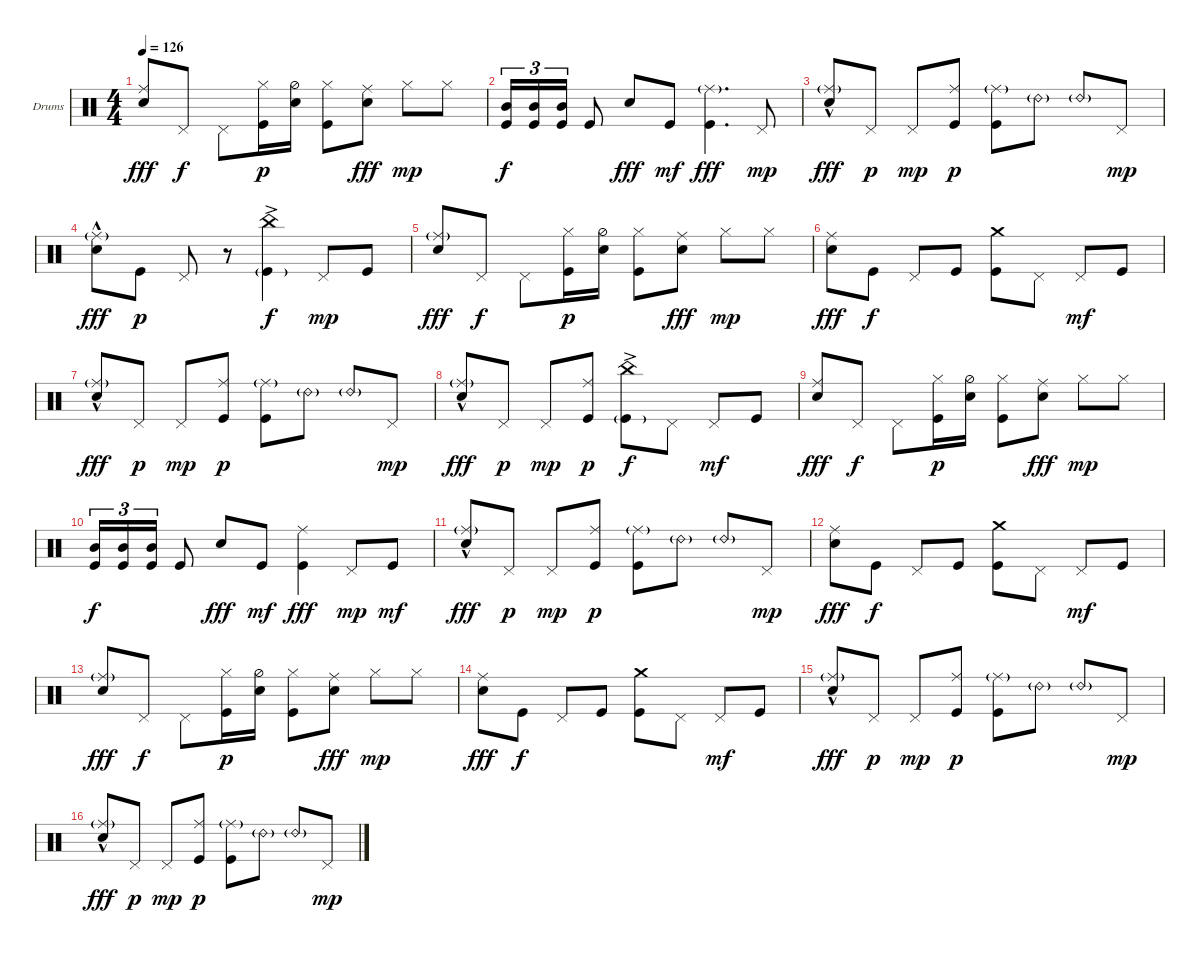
\bracketExtendMode groupsimilarinstruments
\firstSystemTrackNameOrientation horizontal
\otherSystemsTrackNameOrientation horizontal
\track ("drums - john hinch" "Drums") {instrument percussion}
\staff {score}
\articulation defaults
\ts (4 4)
\tempo 126
\clef neutral
\scale
0.333333
\ks c
("Snare (hit) 2" "Ride (middle)").8{dy fff} "Pedal Hi-Hat (hit)".8{dy f} "Pedal Hi-Hat (hit)".8 ("Kick (hit)" "Hi-Hat (closed)").16{dy p} ("Snare (hit) 2" "Hi-Hat (half)").16 ("Kick (hit)" "Hi-Hat (closed)").8 ("Snare (hit) 2" "Ride (middle)").8{dy fff} "Hi-Hat (closed)".8{dy mp} "Hi-Hat (closed)".8 |
\scale
0.333333 ("Kick (hit)" "Mid Tom (hit)").16{tu (3 2) dy f} ("Kick (hit)" "Mid Tom (hit)").16{tu (3 2)} ("Kick (hit)" "Mid Tom (hit)").16{tu (3 2)} "Kick (hit)".8 "Snare (hit) 2".8{dy fff} "Kick (hit)".8{dy mf} ("Kick (hit)" "Ride (middle)"{g}).4{d dy fff} "Pedal Hi-Hat (hit)".8{dy mp} |
\scale
0.333333 ("Snare (hit) 2"{hac} "Ride (middle)"{g}).8{dy fff} "Pedal Hi-Hat (hit)".8{dy p} "Pedal Hi-Hat (hit)".8{dy mp} ("Kick (hit)" "Ride (middle)").8{dy p} ("Kick (hit)" "Ride (middle)"{g}).8 "Ride (bell) 2"{g}.8 "Ride (bell) 2"{g}.8 "Pedal Hi-Hat (hit)".8{dy mp} |
\scale
0.333333 ("Snare (hit) 2"{hac} "Ride (middle)"{g}).8{dy fff} "Kick (hit)".8{dy p} "Pedal Hi-Hat (hit)".8 r.8 ("China (hit)"{ac} "Kick (hit)"{g}).4{dy f} "Pedal Hi-Hat (hit)".8{dy mp} "Kick (hit)".8 |
\scale
0.333333 ("Snare (hit) 2" "Ride (middle)"{g}).8{dy fff} "Pedal Hi-Hat (hit)".8{dy f} "Pedal Hi-Hat (hit)".8 ("Kick (hit)" "Hi-Hat (closed)").16{dy p} ("Snare (hit) 2" "Hi-Hat (half)").16 ("Kick (hit)" "Hi-Hat (closed)").8 ("Snare (hit) 2" "Ride (middle)").8{dy fff} "Hi-Hat (closed)".8{dy mp} "Hi-Hat (closed)".8 |
\scale
0.333333 ("Snare (hit) 2" "Ride (middle)").8{dy fff} "Kick (hit)".8{dy f} "Pedal Hi-Hat (hit)".8 "Kick (hit)".8 ("Kick (hit)" "Crash medium (hit)").8 "Pedal Hi-Hat (hit)".8 "Pedal Hi-Hat (hit)".8{dy mf} "Kick (hit)".8 |
\scale
0.333333 ("Snare (hit) 2"{hac} "Ride (middle)"{g}).8{dy fff} "Pedal Hi-Hat (hit)".8{dy p} "Pedal Hi-Hat (hit)".8{dy mp} ("Kick (hit)" "Ride (middle)").8{dy p} ("Kick (hit)" "Ride (middle)"{g}).8 "Ride (bell) 2"{g}.8 "Ride (bell) 2"{g}.8 "Pedal Hi-Hat (hit)".8{dy mp} |
\scale
0.333333 ("Snare (hit) 2"{hac} "Ride (middle)"{g}).8{dy fff} "Pedal Hi-Hat (hit)".8{dy p} "Pedal Hi-Hat (hit)".8{dy mp} ("Kick (hit)" "Ride (middle)").8{dy p} ("China (hit)"{ac} "Kick (hit)"{g}).8{dy f} "Pedal Hi-Hat (hit)".8 "Pedal Hi-Hat (hit)".8{dy mf} "Kick (hit)".8 |
\scale
0.333333 ("Snare (hit) 2" "Ride (middle)").8{dy fff} "Pedal Hi-Hat (hit)".8{dy f} "Pedal Hi-Hat (hit)".8 ("Kick (hit)" "Hi-Hat (closed)").16{dy p} ("Snare (hit) 2" "Hi-Hat (half)").16 ("Kick (hit)" "Hi-Hat (closed)").8 ("Snare (hit) 2" "Ride (middle)").8{dy fff} "Hi-Hat (closed)".8{dy mp} "Hi-Hat (closed)".8 |
\scale
0.333333 ("Kick (hit)" "Mid Tom (hit)").16{tu (3 2) dy f} ("Kick (hit)" "Mid Tom (hit)").16{tu (3 2)} ("Kick (hit)" "Mid Tom (hit)").16{tu (3 2)} "Kick (hit)".8 "Snare (hit) 2".8{dy fff} "Kick (hit)".8{dy mf} ("Kick (hit)" "Ride (middle)").4{dy fff} "Pedal Hi-Hat (hit)".8{dy mp} "Kick (hit)".8{dy mf} |
\scale
0.333333 ("Snare (hit) 2"{hac} "Ride (middle)"{g}).8{dy fff} "Pedal Hi-Hat (hit)".8{dy p} "Pedal Hi-Hat (hit)".8{dy mp} ("Kick (hit)" "Ride (middle)").8{dy p} ("Kick (hit)" "Ride (middle)"{g}).8 "Ride (bell) 2"{g}.8 "Ride (bell) 2"{g}.8 "Pedal Hi-Hat (hit)".8{dy mp} |
\scale
0.333333 ("Snare (hit) 2" "Ride (middle)").8{dy fff} "Kick (hit)".8{dy f} "Pedal Hi-Hat (hit)".8 "Kick (hit)".8 ("Kick (hit)" "Crash medium (hit)").8 "Pedal Hi-Hat (hit)".8 "Pedal Hi-Hat (hit)".8{dy mf} "Kick (hit)".8 |
\scale
0.333333 ("Snare (hit) 2" "Ride (middle)"{g}).8{dy fff} "Pedal Hi-Hat (hit)".8{dy f} "Pedal Hi-Hat (hit)".8 ("Kick (hit)" "Hi-Hat (closed)").16{dy p} ("Snare (hit) 2" "Hi-Hat (half)").16 ("Kick (hit)" "Hi-Hat (closed)").8 ("Snare (hit) 2" "Ride (middle)").8{dy fff} "Hi-Hat (closed)".8{dy mp} "Hi-Hat (closed)".8 |
\scale
0.333333 ("Snare (hit) 2" "Ride (middle)").8{dy fff} "Kick (hit)".8{dy f} "Pedal Hi-Hat (hit)".8 "Kick (hit)".8 ("Kick (hit)" "Crash medium (hit)").8 "Pedal Hi-Hat (hit)".8 "Pedal Hi-Hat (hit)".8{dy mf} "Kick (hit)".8 |
\scale
0.333333 ("Snare (hit) 2"{hac} "Ride (middle)"{g}).8{dy fff} "Pedal Hi-Hat (hit)".8{dy p} "Pedal Hi-Hat (hit)".8{dy mp} ("Kick (hit)" "Ride (middle)").8{dy p} ("Kick (hit)" "Ride (middle)"{g}).8 "Ride (bell) 2"{g}.8 "Ride (bell) 2"{g}.8 "Pedal Hi-Hat (hit)".8{dy mp} |
\scale
0.333333 ("Snare (hit) 2"{hac} "Ride (middle)"{g}).8{dy fff} "Pedal Hi-Hat (hit)".8{dy p} "Pedal Hi-Hat (hit)".8{dy mp} ("Kick (hit)" "Ride (middle)").8{dy p} ("Kick (hit)" "Ride (middle)"{g}).8 "Ride (bell) 2"{g}.8 "Ride (bell) 2"{g}.8 "Pedal Hi-Hat (hit)".8{dy mp}
